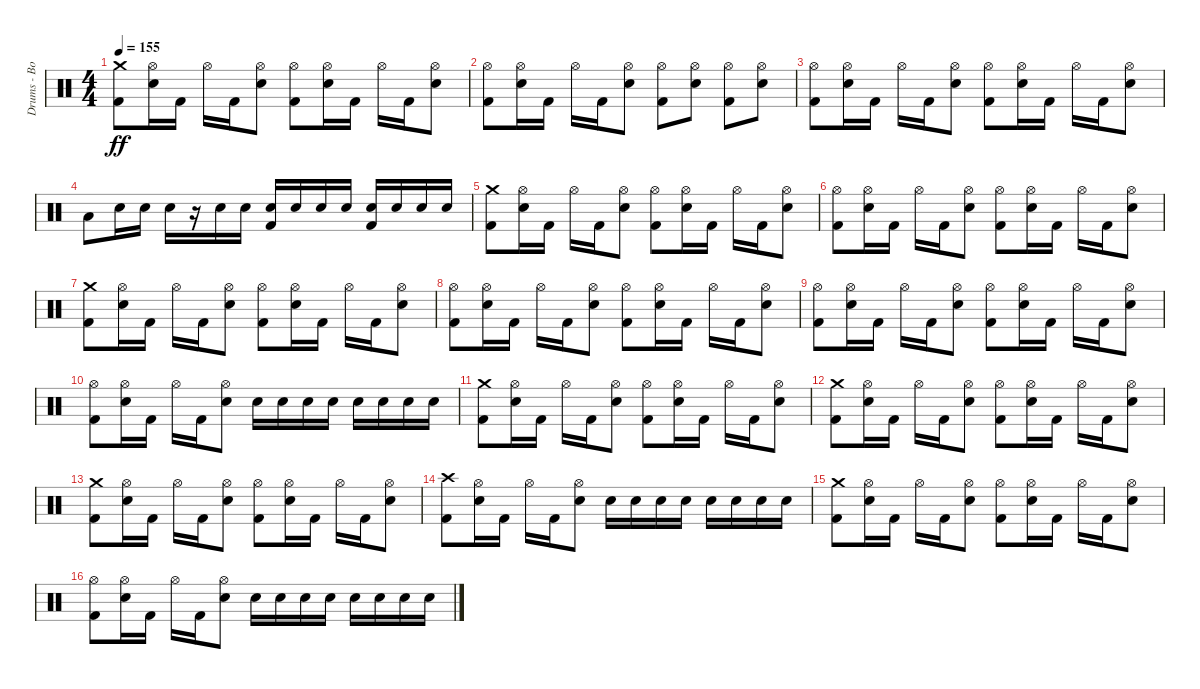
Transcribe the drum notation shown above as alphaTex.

\track ("Drums - Bobby Schayer" "Drums - Bo") {instrument percussion}
\staff {score}
\articulation defaults
\ts (4 4)
\tempo 155
\clef neutral
\ks c
("Kick (hit) 2" "Crash medium (hit)").8{dy ff} ("Electric Snare (hit)" "Hi-Hat (open)").16 "Kick (hit) 2".16 "Hi-Hat (open)".16 "Kick (hit) 2".16 ("Electric Snare (hit)" "Hi-Hat (open)").8 ("Kick (hit) 2" "Hi-Hat (open)").8 ("Electric Snare (hit)" "Hi-Hat (open)").16 "Kick (hit) 2".16 "Hi-Hat (open)".16 "Kick (hit) 2".16 ("Electric Snare (hit)" "Hi-Hat (open)").8 |
("Kick (hit) 2" "Hi-Hat (open)").8 ("Electric Snare (hit)" "Hi-Hat (open)").16 "Kick (hit) 2".16 "Hi-Hat (open)".16 "Kick (hit) 2".16 ("Electric Snare (hit)" "Hi-Hat (open)").8 ("Hi-Hat (open)" "Kick (hit) 2").8 ("Hi-Hat (open)" "Electric Snare (hit)").8 ("Hi-Hat (open)" "Kick (hit) 2").8 ("Hi-Hat (open)" "Electric Snare (hit)").8 |
("Kick (hit) 2" "Hi-Hat (open)").8 ("Electric Snare (hit)" "Hi-Hat (open)").16 "Kick (hit) 2".16 "Hi-Hat (open)".16 "Kick (hit) 2".16 ("Electric Snare (hit)" "Hi-Hat (open)").8 ("Kick (hit) 2" "Hi-Hat (open)").8 ("Electric Snare (hit)" "Hi-Hat (open)").16 "Kick (hit) 2".16 "Hi-Hat (open)".16 "Kick (hit) 2".16 ("Electric Snare (hit)" "Hi-Hat (open)").8 |
"Low Tom (hit)".8 "Electric Snare (hit)".16 "Electric Snare (hit)".16 "Electric Snare (hit)".16 r.16 "Electric Snare (hit)".16 "Electric Snare (hit)".16 ("Kick (hit) 2" "Electric Snare (hit)").16 "Electric Snare (hit)".16 "Electric Snare (hit)".16 "Electric Snare (hit)".16 ("Kick (hit) 2" "Electric Snare (hit)").16 "Electric Snare (hit)".16 "Electric Snare (hit)".16 "Electric Snare (hit)".16 |
("Kick (hit) 2" "Crash medium (hit)").8 ("Electric Snare (hit)" "Hi-Hat (open)").16 "Kick (hit) 2".16 "Hi-Hat (open)".16 "Kick (hit) 2".16 ("Electric Snare (hit)" "Hi-Hat (open)").8 ("Kick (hit) 2" "Hi-Hat (open)").8 ("Electric Snare (hit)" "Hi-Hat (open)").16 "Kick (hit) 2".16 "Hi-Hat (open)".16 "Kick (hit) 2".16 ("Electric Snare (hit)" "Hi-Hat (open)").8 |
("Kick (hit) 2" "Hi-Hat (open)").8 ("Electric Snare (hit)" "Hi-Hat (open)").16 "Kick (hit) 2".16 "Hi-Hat (open)".16 "Kick (hit) 2".16 ("Electric Snare (hit)" "Hi-Hat (open)").8 ("Kick (hit) 2" "Hi-Hat (open)").8 ("Electric Snare (hit)" "Hi-Hat (open)").16 "Kick (hit) 2".16 "Hi-Hat (open)".16 "Kick (hit) 2".16 ("Electric Snare (hit)" "Hi-Hat (open)").8 |
("Kick (hit) 2" "Crash medium (hit)").8 ("Electric Snare (hit)" "Hi-Hat (open)").16 "Kick (hit) 2".16 "Hi-Hat (open)".16 "Kick (hit) 2".16 ("Electric Snare (hit)" "Hi-Hat (open)").8 ("Kick (hit) 2" "Hi-Hat (open)").8 ("Electric Snare (hit)" "Hi-Hat (open)").16 "Kick (hit) 2".16 "Hi-Hat (open)".16 "Kick (hit) 2".16 ("Electric Snare (hit)" "Hi-Hat (open)").8 |
("Kick (hit) 2" "Hi-Hat (open)").8 ("Electric Snare (hit)" "Hi-Hat (open)").16 "Kick (hit) 2".16 "Hi-Hat (open)".16 "Kick (hit) 2".16 ("Electric Snare (hit)" "Hi-Hat (open)").8 ("Kick (hit) 2" "Hi-Hat (open)").8 ("Electric Snare (hit)" "Hi-Hat (open)").16 "Kick (hit) 2".16 "Hi-Hat (open)".16 "Kick (hit) 2".16 ("Electric Snare (hit)" "Hi-Hat (open)").8 |
("Kick (hit) 2" "Hi-Hat (open)").8 ("Electric Snare (hit)" "Hi-Hat (open)").16 "Kick (hit) 2".16 "Hi-Hat (open)".16 "Kick (hit) 2".16 ("Electric Snare (hit)" "Hi-Hat (open)").8 ("Kick (hit) 2" "Hi-Hat (open)").8 ("Electric Snare (hit)" "Hi-Hat (open)").16 "Kick (hit) 2".16 "Hi-Hat (open)".16 "Kick (hit) 2".16 ("Electric Snare (hit)" "Hi-Hat (open)").8 |
("Kick (hit) 2" "Hi-Hat (open)").8 ("Electric Snare (hit)" "Hi-Hat (open)").16 "Kick (hit) 2".16 "Hi-Hat (open)".16 "Kick (hit) 2".16 ("Electric Snare (hit)" "Hi-Hat (open)").8 "Electric Snare (hit)".16 "Electric Snare (hit)".16 "Electric Snare (hit)".16 "Electric Snare (hit)".16 "Electric Snare (hit)".16 "Electric Snare (hit)".16 "Electric Snare (hit)".16 "Electric Snare (hit)".16 |
("Kick (hit) 2" "Crash medium (hit)").8 ("Electric Snare (hit)" "Hi-Hat (open)").16 "Kick (hit) 2".16 "Hi-Hat (open)".16 "Kick (hit) 2".16 ("Electric Snare (hit)" "Hi-Hat (open)").8 ("Kick (hit) 2" "Hi-Hat (open)").8 ("Electric Snare (hit)" "Hi-Hat (open)").16 "Kick (hit) 2".16 "Hi-Hat (open)".16 "Kick (hit) 2".16 ("Electric Snare (hit)" "Hi-Hat (open)").8 |
("Kick (hit) 2" "Crash medium (hit)").8 ("Electric Snare (hit)" "Hi-Hat (open)").16 "Kick (hit) 2".16 "Hi-Hat (open)".16 "Kick (hit) 2".16 ("Electric Snare (hit)" "Hi-Hat (open)").8 ("Kick (hit) 2" "Hi-Hat (open)").8 ("Electric Snare (hit)" "Hi-Hat (open)").16 "Kick (hit) 2".16 "Hi-Hat (open)".16 "Kick (hit) 2".16 ("Electric Snare (hit)" "Hi-Hat (open)").8 |
("Kick (hit) 2" "Crash medium (hit)").8 ("Electric Snare (hit)" "Hi-Hat (open)").16 "Kick (hit) 2".16 "Hi-Hat (open)".16 "Kick (hit) 2".16 ("Electric Snare (hit)" "Hi-Hat (open)").8 ("Kick (hit) 2" "Hi-Hat (open)").8 ("Electric Snare (hit)" "Hi-Hat (open)").16 "Kick (hit) 2".16 "Hi-Hat (open)".16 "Kick (hit) 2".16 ("Electric Snare (hit)" "Hi-Hat (open)").8 |
("Kick (hit) 2" "Crash high (hit)").8 ("Electric Snare (hit)" "Hi-Hat (open)").16 "Kick (hit) 2".16 "Hi-Hat (open)".16 "Kick (hit) 2".16 ("Electric Snare (hit)" "Hi-Hat (open)").8 "Electric Snare (hit)".16 "Electric Snare (hit)".16 "Electric Snare (hit)".16 "Electric Snare (hit)".16 "Electric Snare (hit)".16 "Electric Snare (hit)".16 "Electric Snare (hit)".16 "Electric Snare (hit)".16 |
("Kick (hit) 2" "Crash medium (hit)").8 ("Electric Snare (hit)" "Hi-Hat (open)").16 "Kick (hit) 2".16 "Hi-Hat (open)".16 "Kick (hit) 2".16 ("Electric Snare (hit)" "Hi-Hat (open)").8 ("Kick (hit) 2" "Hi-Hat (open)").8 ("Electric Snare (hit)" "Hi-Hat (open)").16 "Kick (hit) 2".16 "Hi-Hat (open)".16 "Kick (hit) 2".16 ("Electric Snare (hit)" "Hi-Hat (open)").8 |
("Kick (hit) 2" "Hi-Hat (open)").8 ("Electric Snare (hit)" "Hi-Hat (open)").16 "Kick (hit) 2".16 "Hi-Hat (open)".16 "Kick (hit) 2".16 ("Electric Snare (hit)" "Hi-Hat (open)").8 "Electric Snare (hit)".16 "Electric Snare (hit)".16 "Electric Snare (hit)".16 "Electric Snare (hit)".16 "Electric Snare (hit)".16 "Electric Snare (hit)".16 "Electric Snare (hit)".16 "Electric Snare (hit)".16
